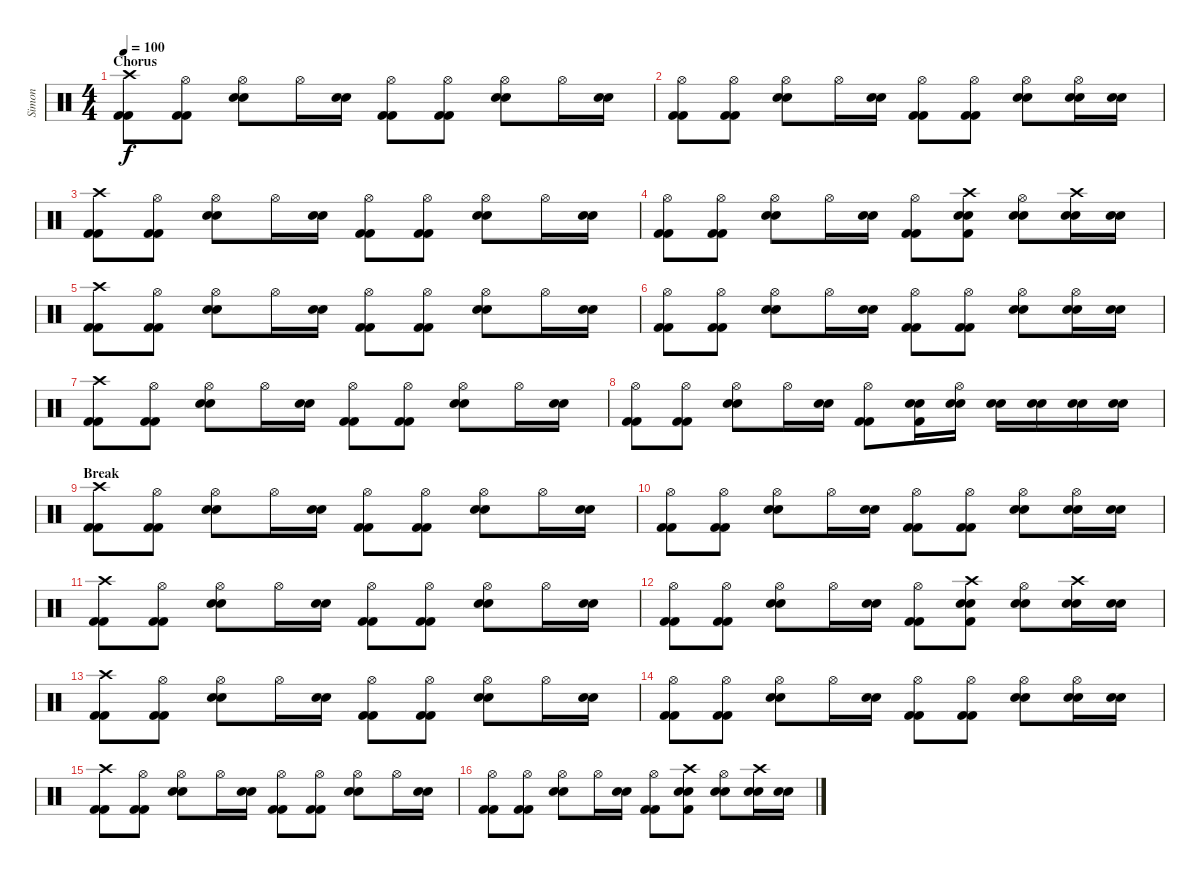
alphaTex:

\track ("Simon" "Simon") {instrument percussion}
\staff {score}
\articulation defaults
\ts (4 4)
\section ("" "Chorus")
\tempo 100
\clef neutral
\ks c
("Crash high (hit)" "Kick (hit) 2" "Kick (hit) 2").8{dy f} ("Hi-Hat (open)" "Kick (hit) 2" "Kick (hit) 2").8 ("Hi-Hat (open)" "Electric Snare (hit)" "Electric Snare (hit)").8 "Hi-Hat (open)".16 ("Electric Snare (hit)" "Electric Snare (hit)").16 ("Hi-Hat (open)" "Kick (hit) 2" "Kick (hit) 2").8 ("Hi-Hat (open)" "Kick (hit) 2" "Kick (hit) 2").8 ("Hi-Hat (open)" "Electric Snare (hit)" "Electric Snare (hit)").8 "Hi-Hat (open)".16 ("Electric Snare (hit)" "Electric Snare (hit)").16 |
("Hi-Hat (open)" "Kick (hit) 2" "Kick (hit) 2").8 ("Hi-Hat (open)" "Kick (hit) 2" "Kick (hit) 2").8 ("Hi-Hat (open)" "Electric Snare (hit)" "Electric Snare (hit)").8 "Hi-Hat (open)".16 ("Electric Snare (hit)" "Electric Snare (hit)").16 ("Hi-Hat (open)" "Kick (hit) 2" "Kick (hit) 2").8 ("Hi-Hat (open)" "Kick (hit) 2" "Kick (hit) 2").8 ("Hi-Hat (open)" "Electric Snare (hit)" "Electric Snare (hit)").8 ("Hi-Hat (open)" "Electric Snare (hit)" "Electric Snare (hit)").16 ("Electric Snare (hit)" "Electric Snare (hit)").16 |
("Crash high (hit)" "Kick (hit) 2" "Kick (hit) 2").8 ("Hi-Hat (open)" "Kick (hit) 2" "Kick (hit) 2").8 ("Hi-Hat (open)" "Electric Snare (hit)" "Electric Snare (hit)").8 "Hi-Hat (open)".16 ("Electric Snare (hit)" "Electric Snare (hit)").16 ("Hi-Hat (open)" "Kick (hit) 2" "Kick (hit) 2").8 ("Hi-Hat (open)" "Kick (hit) 2" "Kick (hit) 2").8 ("Hi-Hat (open)" "Electric Snare (hit)" "Electric Snare (hit)").8 "Hi-Hat (open)".16 ("Electric Snare (hit)" "Electric Snare (hit)").16 |
("Hi-Hat (open)" "Kick (hit) 2" "Kick (hit) 2").8 ("Hi-Hat (open)" "Kick (hit) 2" "Kick (hit) 2").8 ("Hi-Hat (open)" "Electric Snare (hit)" "Electric Snare (hit)").8 "Hi-Hat (open)".16 ("Electric Snare (hit)" "Electric Snare (hit)").16 ("Hi-Hat (open)" "Kick (hit) 2" "Kick (hit) 2").8 ("Crash high (hit)" "Kick (hit) 2" "Electric Snare (hit)" "Electric Snare (hit)").8 ("Hi-Hat (open)" "Electric Snare (hit)" "Electric Snare (hit)").8 ("Crash high (hit)" "Electric Snare (hit)" "Electric Snare (hit)").16 ("Electric Snare (hit)" "Electric Snare (hit)").16 |
("Crash high (hit)" "Kick (hit) 2" "Kick (hit) 2").8 ("Hi-Hat (open)" "Kick (hit) 2" "Kick (hit) 2").8 ("Hi-Hat (open)" "Electric Snare (hit)" "Electric Snare (hit)").8 "Hi-Hat (open)".16 ("Electric Snare (hit)" "Electric Snare (hit)").16 ("Hi-Hat (open)" "Kick (hit) 2" "Kick (hit) 2").8 ("Hi-Hat (open)" "Kick (hit) 2" "Kick (hit) 2").8 ("Hi-Hat (open)" "Electric Snare (hit)" "Electric Snare (hit)").8 "Hi-Hat (open)".16 ("Electric Snare (hit)" "Electric Snare (hit)").16 |
("Hi-Hat (open)" "Kick (hit) 2" "Kick (hit) 2").8 ("Hi-Hat (open)" "Kick (hit) 2" "Kick (hit) 2").8 ("Hi-Hat (open)" "Electric Snare (hit)" "Electric Snare (hit)").8 "Hi-Hat (open)".16 ("Electric Snare (hit)" "Electric Snare (hit)").16 ("Hi-Hat (open)" "Kick (hit) 2" "Kick (hit) 2").8 ("Hi-Hat (open)" "Kick (hit) 2" "Kick (hit) 2").8 ("Hi-Hat (open)" "Electric Snare (hit)" "Electric Snare (hit)").8 ("Hi-Hat (open)" "Electric Snare (hit)" "Electric Snare (hit)").16 ("Electric Snare (hit)" "Electric Snare (hit)").16 |
("Crash high (hit)" "Kick (hit) 2" "Kick (hit) 2").8 ("Hi-Hat (open)" "Kick (hit) 2" "Kick (hit) 2").8 ("Hi-Hat (open)" "Electric Snare (hit)" "Electric Snare (hit)").8 "Hi-Hat (open)".16 ("Electric Snare (hit)" "Electric Snare (hit)").16 ("Hi-Hat (open)" "Kick (hit) 2" "Kick (hit) 2").8 ("Hi-Hat (open)" "Kick (hit) 2" "Kick (hit) 2").8 ("Hi-Hat (open)" "Electric Snare (hit)" "Electric Snare (hit)").8 "Hi-Hat (open)".16 ("Electric Snare (hit)" "Electric Snare (hit)").16 |
("Hi-Hat (open)" "Kick (hit) 2" "Kick (hit) 2").8 ("Hi-Hat (open)" "Kick (hit) 2" "Kick (hit) 2").8 ("Hi-Hat (open)" "Electric Snare (hit)" "Electric Snare (hit)").8 "Hi-Hat (open)".16 ("Electric Snare (hit)" "Electric Snare (hit)").16 ("Hi-Hat (open)" "Kick (hit) 2" "Kick (hit) 2").8 ("Kick (hit) 2" "Electric Snare (hit)" "Electric Snare (hit)").16 ("Hi-Hat (open)" "Electric Snare (hit)" "Electric Snare (hit)").16 ("Electric Snare (hit)" "Electric Snare (hit)").16 ("Electric Snare (hit)" "Electric Snare (hit)").16 ("Electric Snare (hit)" "Electric Snare (hit)").16 ("Electric Snare (hit)" "Electric Snare (hit)").16 |
\section ("" "Break")
("Crash high (hit)" "Kick (hit) 2" "Kick (hit) 2").8 ("Hi-Hat (open)" "Kick (hit) 2" "Kick (hit) 2").8 ("Hi-Hat (open)" "Electric Snare (hit)" "Electric Snare (hit)").8 "Hi-Hat (open)".16 ("Electric Snare (hit)" "Electric Snare (hit)").16 ("Hi-Hat (open)" "Kick (hit) 2" "Kick (hit) 2").8 ("Hi-Hat (open)" "Kick (hit) 2" "Kick (hit) 2").8 ("Hi-Hat (open)" "Electric Snare (hit)" "Electric Snare (hit)").8 "Hi-Hat (open)".16 ("Electric Snare (hit)" "Electric Snare (hit)").16 |
("Hi-Hat (open)" "Kick (hit) 2" "Kick (hit) 2").8 ("Hi-Hat (open)" "Kick (hit) 2" "Kick (hit) 2").8 ("Hi-Hat (open)" "Electric Snare (hit)" "Electric Snare (hit)").8 "Hi-Hat (open)".16 ("Electric Snare (hit)" "Electric Snare (hit)").16 ("Hi-Hat (open)" "Kick (hit) 2" "Kick (hit) 2").8 ("Hi-Hat (open)" "Kick (hit) 2" "Kick (hit) 2").8 ("Hi-Hat (open)" "Electric Snare (hit)" "Electric Snare (hit)").8 ("Hi-Hat (open)" "Electric Snare (hit)" "Electric Snare (hit)").16 ("Electric Snare (hit)" "Electric Snare (hit)").16 |
("Crash high (hit)" "Kick (hit) 2" "Kick (hit) 2").8 ("Hi-Hat (open)" "Kick (hit) 2" "Kick (hit) 2").8 ("Hi-Hat (open)" "Electric Snare (hit)" "Electric Snare (hit)").8 "Hi-Hat (open)".16 ("Electric Snare (hit)" "Electric Snare (hit)").16 ("Hi-Hat (open)" "Kick (hit) 2" "Kick (hit) 2").8 ("Hi-Hat (open)" "Kick (hit) 2" "Kick (hit) 2").8 ("Hi-Hat (open)" "Electric Snare (hit)" "Electric Snare (hit)").8 "Hi-Hat (open)".16 ("Electric Snare (hit)" "Electric Snare (hit)").16 |
("Hi-Hat (open)" "Kick (hit) 2" "Kick (hit) 2").8 ("Hi-Hat (open)" "Kick (hit) 2" "Kick (hit) 2").8 ("Hi-Hat (open)" "Electric Snare (hit)" "Electric Snare (hit)").8 "Hi-Hat (open)".16 ("Electric Snare (hit)" "Electric Snare (hit)").16 ("Hi-Hat (open)" "Kick (hit) 2" "Kick (hit) 2").8 ("Crash high (hit)" "Kick (hit) 2" "Electric Snare (hit)" "Electric Snare (hit)").8 ("Hi-Hat (open)" "Electric Snare (hit)" "Electric Snare (hit)").8 ("Crash high (hit)" "Electric Snare (hit)" "Electric Snare (hit)").16 ("Electric Snare (hit)" "Electric Snare (hit)").16 |
("Crash high (hit)" "Kick (hit) 2" "Kick (hit) 2").8 ("Hi-Hat (open)" "Kick (hit) 2" "Kick (hit) 2").8 ("Hi-Hat (open)" "Electric Snare (hit)" "Electric Snare (hit)").8 "Hi-Hat (open)".16 ("Electric Snare (hit)" "Electric Snare (hit)").16 ("Hi-Hat (open)" "Kick (hit) 2" "Kick (hit) 2").8 ("Hi-Hat (open)" "Kick (hit) 2" "Kick (hit) 2").8 ("Hi-Hat (open)" "Electric Snare (hit)" "Electric Snare (hit)").8 "Hi-Hat (open)".16 ("Electric Snare (hit)" "Electric Snare (hit)").16 |
("Hi-Hat (open)" "Kick (hit) 2" "Kick (hit) 2").8 ("Hi-Hat (open)" "Kick (hit) 2" "Kick (hit) 2").8 ("Hi-Hat (open)" "Electric Snare (hit)" "Electric Snare (hit)").8 "Hi-Hat (open)".16 ("Electric Snare (hit)" "Electric Snare (hit)").16 ("Hi-Hat (open)" "Kick (hit) 2" "Kick (hit) 2").8 ("Hi-Hat (open)" "Kick (hit) 2" "Kick (hit) 2").8 ("Hi-Hat (open)" "Electric Snare (hit)" "Electric Snare (hit)").8 ("Hi-Hat (open)" "Electric Snare (hit)" "Electric Snare (hit)").16 ("Electric Snare (hit)" "Electric Snare (hit)").16 |
("Crash high (hit)" "Kick (hit) 2" "Kick (hit) 2").8 ("Hi-Hat (open)" "Kick (hit) 2" "Kick (hit) 2").8 ("Hi-Hat (open)" "Electric Snare (hit)" "Electric Snare (hit)").8 "Hi-Hat (open)".16 ("Electric Snare (hit)" "Electric Snare (hit)").16 ("Hi-Hat (open)" "Kick (hit) 2" "Kick (hit) 2").8 ("Hi-Hat (open)" "Kick (hit) 2" "Kick (hit) 2").8 ("Hi-Hat (open)" "Electric Snare (hit)" "Electric Snare (hit)").8 "Hi-Hat (open)".16 ("Electric Snare (hit)" "Electric Snare (hit)").16 |
("Hi-Hat (open)" "Kick (hit) 2" "Kick (hit) 2").8 ("Hi-Hat (open)" "Kick (hit) 2" "Kick (hit) 2").8 ("Hi-Hat (open)" "Electric Snare (hit)" "Electric Snare (hit)").8 "Hi-Hat (open)".16 ("Electric Snare (hit)" "Electric Snare (hit)").16 ("Hi-Hat (open)" "Kick (hit) 2" "Kick (hit) 2").8 ("Crash high (hit)" "Kick (hit) 2" "Electric Snare (hit)" "Electric Snare (hit)").8 ("Hi-Hat (open)" "Electric Snare (hit)" "Electric Snare (hit)").8 ("Crash high (hit)" "Electric Snare (hit)" "Electric Snare (hit)").16 ("Electric Snare (hit)" "Electric Snare (hit)").16
